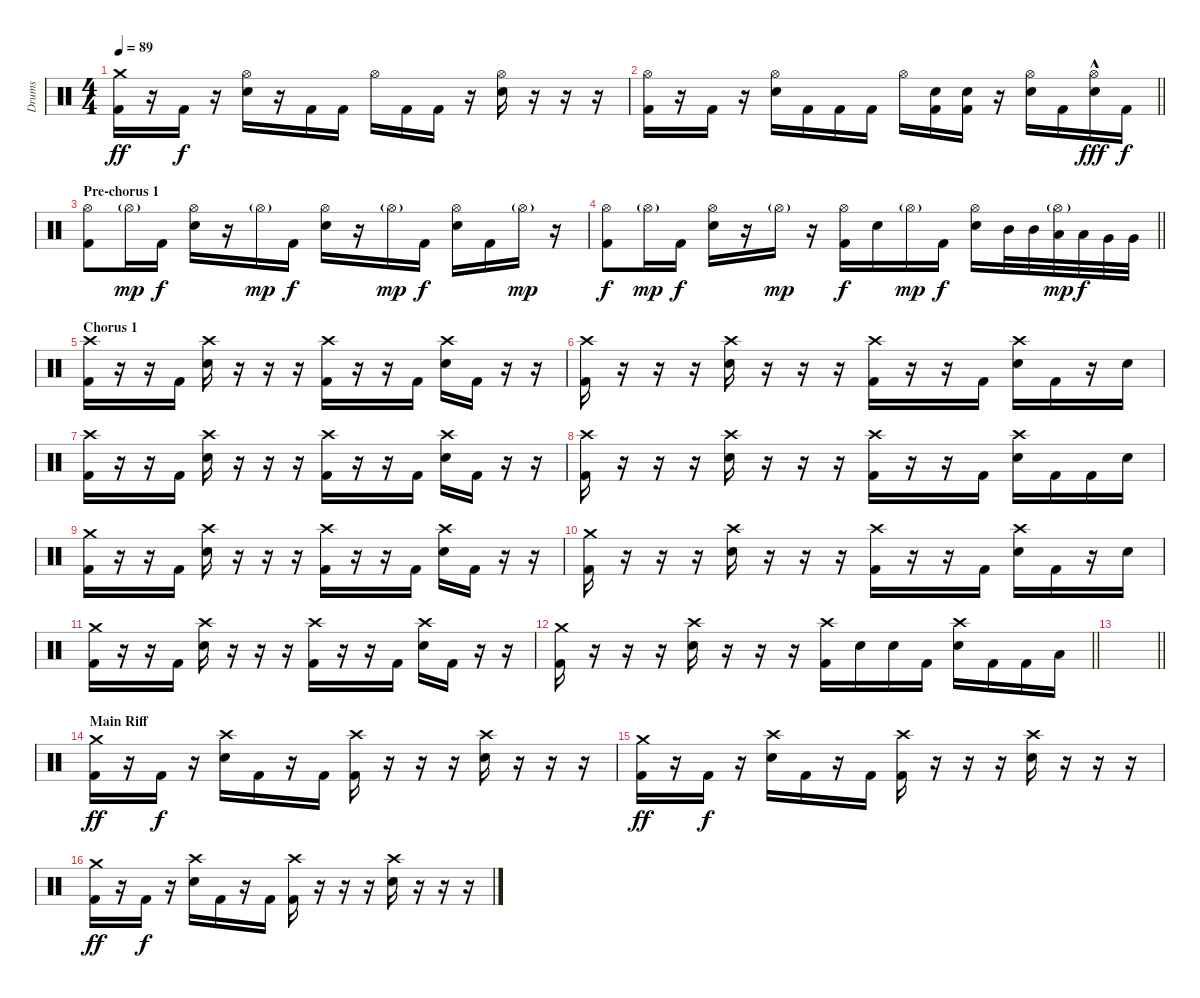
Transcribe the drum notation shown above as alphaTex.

\track ("Drums" "Drums") {instrument percussion}
\staff {score}
\articulation defaults
\ts (4 4)
\tempo 89
\clef neutral
\ks c
("Crash medium (hit)" "Kick (hit) 2").16{dy ff} r.16 "Kick (hit) 2".16{dy f} r.16 ("Hi-Hat (open)" "Electric Snare (hit)").16 r.16 "Kick (hit) 2".16 "Kick (hit) 2".16 "Hi-Hat (open)".16 "Kick (hit) 2".16 "Kick (hit) 2".16 r.16 ("Hi-Hat (open)" "Electric Snare (hit)").16 r.16 r.16 r.16 |
\barLineRight lightlight
("Hi-Hat (open)" "Kick (hit) 2").16 r.16 "Kick (hit) 2".16 r.16 ("Hi-Hat (open)" "Electric Snare (hit)").16 "Kick (hit) 2".16 "Kick (hit) 2".16 "Kick (hit) 2".16 "Hi-Hat (open)".16 ("Electric Snare (hit)" "Kick (hit) 2").16 ("Electric Snare (hit)" "Kick (hit) 2").16 r.16 ("Hi-Hat (open)" "Electric Snare (hit)").16 "Kick (hit) 2".16 ("Hi-Hat (open)"{hac} "Electric Snare (hit)").16{dy fff} "Kick (hit) 2".16{dy f} |
\section ("" "Pre-chorus 1")
("Hi-Hat (open)" "Kick (hit) 2").8 "Hi-Hat (open)"{g}.16{dy mp} "Kick (hit) 2".16{dy f} ("Hi-Hat (open)" "Electric Snare (hit)").16 r.16 "Hi-Hat (open)"{g}.16{dy mp} "Kick (hit) 2".16{dy f} ("Hi-Hat (open)" "Electric Snare (hit)").16 r.16 "Hi-Hat (open)"{g}.16{dy mp} "Kick (hit) 2".16{dy f} ("Hi-Hat (open)" "Electric Snare (hit)").16 "Kick (hit) 2".16 "Hi-Hat (open)"{g}.16{dy mp} r.16 |
\barLineRight lightlight
("Hi-Hat (open)" "Kick (hit) 2").8{dy f} "Hi-Hat (open)"{g}.16{dy mp} "Kick (hit) 2".16{dy f} ("Hi-Hat (open)" "Electric Snare (hit)").16 r.16 "Hi-Hat (open)"{g}.16{dy mp} r.16 ("Hi-Hat (open)" "Kick (hit) 2").16{dy f} "Electric Snare (hit)".16 "Hi-Hat (open)"{g}.16{dy mp} "Kick (hit) 2".16{dy f} ("Hi-Hat (open)" "Electric Snare (hit)").16 "Mid Tom (hit)".32 "Mid Tom (hit)".32 ("Hi-Hat (open)"{g} "Low Tom (hit)").32{dy mp} "Low Tom (hit)".32{dy f} "Very Low Tom (hit)".32 "Very Low Tom (hit)".32 |
\section ("" "Chorus 1")
("Crash high (hit)" "Kick (hit) 2").16 r.16 r.16 "Kick (hit) 2".16 ("Crash high (hit)" "Electric Snare (hit)").16 r.16 r.16 r.16 ("Crash high (hit)" "Kick (hit) 2").16 r.16 r.16 "Kick (hit) 2".16 ("Crash high (hit)" "Electric Snare (hit)").16 "Kick (hit) 2".16 r.16 r.16 |
("Crash high (hit)" "Kick (hit) 2").16 r.16 r.16 r.16 ("Crash high (hit)" "Electric Snare (hit)").16 r.16 r.16 r.16 ("Crash high (hit)" "Kick (hit) 2").16 r.16 r.16 "Kick (hit) 2".16 ("Crash high (hit)" "Electric Snare (hit)").16 "Kick (hit) 2".16 r.16 "Electric Snare (hit)".16 |
("Crash high (hit)" "Kick (hit) 2").16 r.16 r.16 "Kick (hit) 2".16 ("Crash high (hit)" "Electric Snare (hit)").16 r.16 r.16 r.16 ("Crash high (hit)" "Kick (hit) 2").16 r.16 r.16 "Kick (hit) 2".16 ("Crash high (hit)" "Electric Snare (hit)").16 "Kick (hit) 2".16 r.16 r.16 |
("Crash high (hit)" "Kick (hit) 2").16 r.16 r.16 r.16 ("Crash high (hit)" "Electric Snare (hit)").16 r.16 r.16 r.16 ("Crash high (hit)" "Kick (hit) 2").16 r.16 r.16 "Kick (hit) 2".16 ("Crash high (hit)" "Electric Snare (hit)").16 "Kick (hit) 2".16 "Kick (hit) 2".16 "Electric Snare (hit)".16 |
("Crash medium (hit)" "Kick (hit) 2").16 r.16 r.16 "Kick (hit) 2".16 ("Crash high (hit)" "Electric Snare (hit)").16 r.16 r.16 r.16 ("Crash high (hit)" "Kick (hit) 2").16 r.16 r.16 "Kick (hit) 2".16 ("Crash high (hit)" "Electric Snare (hit)").16 "Kick (hit) 2".16 r.16 r.16 |
("Crash medium (hit)" "Kick (hit) 2").16 r.16 r.16 r.16 ("Crash high (hit)" "Electric Snare (hit)").16 r.16 r.16 r.16 ("Crash high (hit)" "Kick (hit) 2").16 r.16 r.16 "Kick (hit) 2".16 ("Crash high (hit)" "Electric Snare (hit)").16 "Kick (hit) 2".16 r.16 "Electric Snare (hit)".16 |
("Crash medium (hit)" "Kick (hit) 2").16 r.16 r.16 "Kick (hit) 2".16 ("Crash high (hit)" "Electric Snare (hit)").16 r.16 r.16 r.16 ("Crash high (hit)" "Kick (hit) 2").16 r.16 r.16 "Kick (hit) 2".16 ("Crash high (hit)" "Electric Snare (hit)").16 "Kick (hit) 2".16 r.16 r.16 |
\barLineRight lightlight
("Crash medium (hit)" "Kick (hit) 2").16 r.16 r.16 r.16 ("Crash high (hit)" "Electric Snare (hit)").16 r.16 r.16 r.16 ("Crash high (hit)" "Kick (hit) 2").16 "Electric Snare (hit)".16 "Electric Snare (hit)".16 "Kick (hit) 2".16 ("Crash high (hit)" "Electric Snare (hit)").16 "Kick (hit) 2".16 "Kick (hit) 2".16 "Low Tom (hit)".16 |
\barLineRight lightlight
|
\section ("" "Main Riff")
("Crash medium (hit)" "Kick (hit) 2").16{dy ff} r.16 "Kick (hit) 2".16{dy f} r.16 ("Crash high (hit)" "Electric Snare (hit)").16 "Kick (hit) 2".16 r.16 "Kick (hit) 2".16 ("Crash high (hit)" "Kick (hit) 2").16 r.16 r.16 r.16 ("Crash high (hit)" "Electric Snare (hit)").16 r.16 r.16 r.16 |
("Crash medium (hit)" "Kick (hit) 2").16{dy ff} r.16 "Kick (hit) 2".16{dy f} r.16 ("Crash high (hit)" "Electric Snare (hit)").16 "Kick (hit) 2".16 r.16 "Kick (hit) 2".16 ("Crash high (hit)" "Kick (hit) 2").16 r.16 r.16 r.16 ("Crash high (hit)" "Electric Snare (hit)").16 r.16 r.16 r.16 |
("Crash medium (hit)" "Kick (hit) 2").16{dy ff} r.16 "Kick (hit) 2".16{dy f} r.16 ("Crash high (hit)" "Electric Snare (hit)").16 "Kick (hit) 2".16 r.16 "Kick (hit) 2".16 ("Crash high (hit)" "Kick (hit) 2").16 r.16 r.16 r.16 ("Crash high (hit)" "Electric Snare (hit)").16 r.16 r.16 r.16
